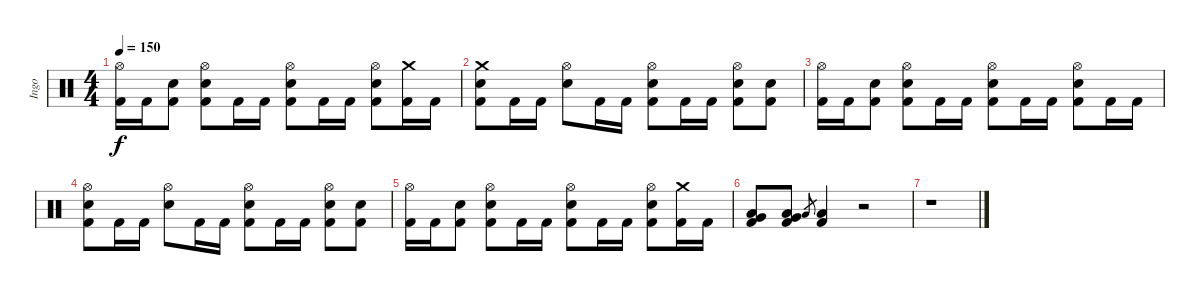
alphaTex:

\track ("Ingo" "Ingo") {instrument percussion}
\staff {score}
\articulation defaults
\ts (4 4)
\tempo 150
\clef neutral
\ks c
("Hi-Hat (open)" "Kick (hit) 2").16{dy f} "Kick (hit) 2".16 ("Electric Snare (hit)" "Kick (hit) 2").8 ("Hi-Hat (open)" "Electric Snare (hit)" "Kick (hit) 2").8 "Kick (hit) 2".16 "Kick (hit) 2".16 ("Hi-Hat (open)" "Electric Snare (hit)" "Kick (hit) 2").8 "Kick (hit) 2".16 "Kick (hit) 2".16 ("Hi-Hat (open)" "Electric Snare (hit)" "Kick (hit) 2").8 ("Crash medium (hit)" "Kick (hit) 2").16 "Kick (hit) 2".16 |
("Crash medium (hit)" "Electric Snare (hit)" "Kick (hit) 2").8 "Kick (hit) 2".16 "Kick (hit) 2".16 ("Hi-Hat (open)" "Electric Snare (hit)").8 "Kick (hit) 2".16 "Kick (hit) 2".16 ("Hi-Hat (open)" "Electric Snare (hit)" "Kick (hit) 2").8 "Kick (hit) 2".16 "Kick (hit) 2".16 ("Hi-Hat (open)" "Electric Snare (hit)" "Kick (hit) 2").8 ("Electric Snare (hit)" "Kick (hit) 2").8 |
("Hi-Hat (open)" "Kick (hit) 2").16 "Kick (hit) 2".16 ("Electric Snare (hit)" "Kick (hit) 2").8 ("Hi-Hat (open)" "Electric Snare (hit)" "Kick (hit) 2").8 "Kick (hit) 2".16 "Kick (hit) 2".16 ("Hi-Hat (open)" "Electric Snare (hit)" "Kick (hit) 2").8 "Kick (hit) 2".16 "Kick (hit) 2".16 ("Hi-Hat (open)" "Electric Snare (hit)" "Kick (hit) 2").8 "Kick (hit) 2".16 "Kick (hit) 2".16 |
("Hi-Hat (open)" "Electric Snare (hit)" "Kick (hit) 2").8 "Kick (hit) 2".16 "Kick (hit) 2".16 ("Hi-Hat (open)" "Electric Snare (hit)").8 "Kick (hit) 2".16 "Kick (hit) 2".16 ("Hi-Hat (open)" "Electric Snare (hit)" "Kick (hit) 2").8 "Kick (hit) 2".16 "Kick (hit) 2".16 ("Hi-Hat (open)" "Electric Snare (hit)" "Kick (hit) 2").8 ("Electric Snare (hit)" "Kick (hit) 2").8 |
("Hi-Hat (open)" "Kick (hit) 2").16 "Kick (hit) 2".16 ("Electric Snare (hit)" "Kick (hit) 2").8 ("Hi-Hat (open)" "Electric Snare (hit)" "Kick (hit) 2").8 "Kick (hit) 2".16 "Kick (hit) 2".16 ("Hi-Hat (open)" "Electric Snare (hit)" "Kick (hit) 2").8 "Kick (hit) 2".16 "Kick (hit) 2".16 ("Hi-Hat (open)" "Electric Snare (hit)" "Kick (hit) 2").8 ("Crash medium (hit)" "Kick (hit) 2").16 "Kick (hit) 2".16 |
("Low Tom (hit)" "Very Low Tom (hit)" "Kick (hit) 2").8 ("Very Low Tom (hit)" "Low Floor Tom (hit)" "Kick (hit) 2").8 "Low Floor Tom (hit)".8{gr} ("Low Floor Tom (hit)" "Kick (hit) 2").4 r.2 |
r.1
